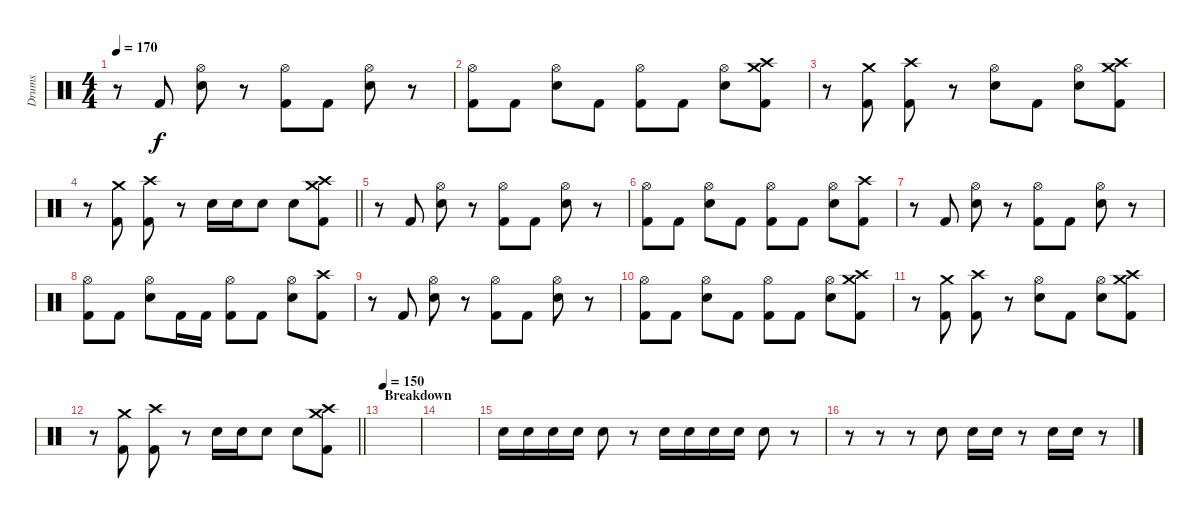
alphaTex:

\track ("Drums" "Drums") {instrument percussion}
\staff {score}
\articulation defaults
\ts (4 4)
\tempo 170
\clef neutral
\ks c
r.8{dy f} "Kick (hit) 2".8 ("Hi-Hat (open)" "Snare (hit) 2").8 r.8 ("Hi-Hat (open)" "Kick (hit) 2").8 "Kick (hit) 2".8 ("Hi-Hat (open)" "Snare (hit) 2").8 r.8 |
("Hi-Hat (open)" "Kick (hit) 2").8 "Kick (hit) 2".8 ("Hi-Hat (open)" "Snare (hit) 2").8 "Kick (hit) 2".8 ("Hi-Hat (open)" "Kick (hit) 2").8 "Kick (hit) 2".8 ("Hi-Hat (open)" "Snare (hit) 2").8 ("Crash high (hit)" "Crash medium (hit)" "Kick (hit) 2").8 |
r.8 ("Crash medium (hit)" "Kick (hit) 2").8 ("Crash high (hit)" "Kick (hit) 2").8 r.8 ("Hi-Hat (open)" "Snare (hit) 2").8 "Kick (hit) 2".8 ("Hi-Hat (open)" "Snare (hit) 2").8 ("Crash high (hit)" "Crash medium (hit)" "Kick (hit) 2").8 |
\barLineRight lightlight
r.8 ("Crash medium (hit)" "Kick (hit) 2").8 ("Crash high (hit)" "Kick (hit) 2").8 r.8 "Snare (hit) 2".16 "Snare (hit) 2".16 "Snare (hit) 2".8 "Snare (hit) 2".8 ("Crash high (hit)" "Crash medium (hit)" "Kick (hit) 2").8 |
r.8 "Kick (hit) 2".8 ("Hi-Hat (open)" "Snare (hit) 2").8 r.8 ("Hi-Hat (open)" "Kick (hit) 2").8 "Kick (hit) 2".8 ("Hi-Hat (open)" "Snare (hit) 2").8 r.8 |
("Hi-Hat (open)" "Kick (hit) 2").8 "Kick (hit) 2".8 ("Hi-Hat (open)" "Snare (hit) 2").8 "Kick (hit) 2".8 ("Hi-Hat (open)" "Kick (hit) 2").8 "Kick (hit) 2".8 ("Hi-Hat (open)" "Snare (hit) 2").8 ("Crash high (hit)" "Kick (hit) 2").8 |
r.8 "Kick (hit) 2".8 ("Hi-Hat (open)" "Snare (hit) 2").8 r.8 ("Hi-Hat (open)" "Kick (hit) 2").8 "Kick (hit) 2".8 ("Hi-Hat (open)" "Snare (hit) 2").8 r.8 |
("Hi-Hat (open)" "Kick (hit) 2").8 "Kick (hit) 2".8 ("Hi-Hat (open)" "Snare (hit) 2").8 "Kick (hit) 2".16 "Kick (hit) 2".16 ("Hi-Hat (open)" "Kick (hit) 2").8 "Kick (hit) 2".8 ("Hi-Hat (open)" "Snare (hit) 2").8 ("Crash high (hit)" "Kick (hit) 2").8 |
r.8 "Kick (hit) 2".8 ("Hi-Hat (open)" "Snare (hit) 2").8 r.8 ("Hi-Hat (open)" "Kick (hit) 2").8 "Kick (hit) 2".8 ("Hi-Hat (open)" "Snare (hit) 2").8 r.8 |
("Hi-Hat (open)" "Kick (hit) 2").8 "Kick (hit) 2".8 ("Hi-Hat (open)" "Snare (hit) 2").8 "Kick (hit) 2".8 ("Hi-Hat (open)" "Kick (hit) 2").8 "Kick (hit) 2".8 ("Hi-Hat (open)" "Snare (hit) 2").8 ("Crash high (hit)" "Crash medium (hit)" "Kick (hit) 2").8 |
r.8 ("Crash medium (hit)" "Kick (hit) 2").8 ("Crash high (hit)" "Kick (hit) 2").8 r.8 ("Hi-Hat (open)" "Snare (hit) 2").8 "Kick (hit) 2".8 ("Hi-Hat (open)" "Snare (hit) 2").8 ("Crash high (hit)" "Crash medium (hit)" "Kick (hit) 2").8 |
\barLineRight lightlight
r.8 ("Crash medium (hit)" "Kick (hit) 2").8 ("Crash high (hit)" "Kick (hit) 2").8 r.8 "Snare (hit) 2".16 "Snare (hit) 2".16 "Snare (hit) 2".8 "Snare (hit) 2".8 ("Crash high (hit)" "Crash medium (hit)" "Kick (hit) 2").8 |
\section ("" "Breakdown")
\tempo 150
|
|
"Snare (hit) 2".16 "Snare (hit) 2".16 "Snare (hit) 2".16 "Snare (hit) 2".16 "Snare (hit) 2".8 r.8 "Snare (hit) 2".16 "Snare (hit) 2".16 "Snare (hit) 2".16 "Snare (hit) 2".16 "Snare (hit) 2".8 r.8 |
r.8 r.8 r.8 "Snare (hit) 2".8 "Snare (hit) 2".16 "Snare (hit) 2".16 r.8 "Snare (hit) 2".16 "Snare (hit) 2".16 r.8
